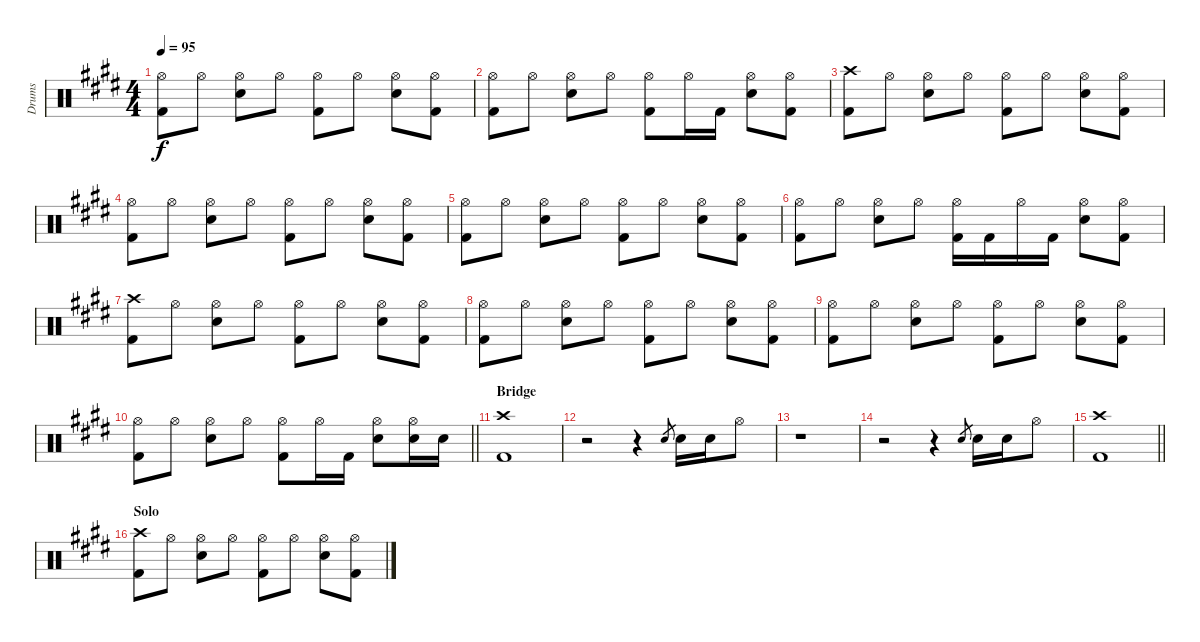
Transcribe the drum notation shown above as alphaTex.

\track ("Drums" "Drums") {instrument percussion}
\staff {score}
\articulation defaults
\ts (4 4)
\tempo 95
\clef neutral
\ks e
("Hi-Hat (open)" "Kick (hit) 2").8{dy f} "Hi-Hat (open)".8 ("Hi-Hat (open)" "Snare (hit) 2").8 "Hi-Hat (open)".8 ("Hi-Hat (open)" "Kick (hit) 2").8 "Hi-Hat (open)".8 ("Hi-Hat (open)" "Snare (hit) 2").8 ("Hi-Hat (open)" "Kick (hit) 2").8 |
("Hi-Hat (open)" "Kick (hit) 2").8 "Hi-Hat (open)".8 ("Hi-Hat (open)" "Snare (hit) 2").8 "Hi-Hat (open)".8 ("Hi-Hat (open)" "Kick (hit) 2").8 "Hi-Hat (open)".16 "Kick (hit) 2".16 ("Hi-Hat (open)" "Snare (hit) 2").8 ("Hi-Hat (open)" "Kick (hit) 2").8 |
("Crash high (hit)" "Kick (hit) 2").8 "Hi-Hat (open)".8 ("Hi-Hat (open)" "Snare (hit) 2").8 "Hi-Hat (open)".8 ("Hi-Hat (open)" "Kick (hit) 2").8 "Hi-Hat (open)".8 ("Hi-Hat (open)" "Snare (hit) 2").8 ("Hi-Hat (open)" "Kick (hit) 2").8 |
("Hi-Hat (open)" "Kick (hit) 2").8 "Hi-Hat (open)".8 ("Hi-Hat (open)" "Snare (hit) 2").8 "Hi-Hat (open)".8 ("Hi-Hat (open)" "Kick (hit) 2").8 "Hi-Hat (open)".8 ("Hi-Hat (open)" "Snare (hit) 2").8 ("Hi-Hat (open)" "Kick (hit) 2").8 |
("Hi-Hat (open)" "Kick (hit) 2").8 "Hi-Hat (open)".8 ("Hi-Hat (open)" "Snare (hit) 2").8 "Hi-Hat (open)".8 ("Hi-Hat (open)" "Kick (hit) 2").8 "Hi-Hat (open)".8 ("Hi-Hat (open)" "Snare (hit) 2").8 ("Hi-Hat (open)" "Kick (hit) 2").8 |
("Hi-Hat (open)" "Kick (hit) 2").8 "Hi-Hat (open)".8 ("Hi-Hat (open)" "Snare (hit) 2").8 "Hi-Hat (open)".8 ("Hi-Hat (open)" "Kick (hit) 2").16 "Kick (hit) 2".16 "Hi-Hat (open)".16 "Kick (hit) 2".16 ("Hi-Hat (open)" "Snare (hit) 2").8 ("Hi-Hat (open)" "Kick (hit) 2").8 |
("Crash high (hit)" "Kick (hit) 2").8 "Hi-Hat (open)".8 ("Hi-Hat (open)" "Snare (hit) 2").8 "Hi-Hat (open)".8 ("Hi-Hat (open)" "Kick (hit) 2").8 "Hi-Hat (open)".8 ("Hi-Hat (open)" "Snare (hit) 2").8 ("Hi-Hat (open)" "Kick (hit) 2").8 |
("Hi-Hat (open)" "Kick (hit) 2").8 "Hi-Hat (open)".8 ("Hi-Hat (open)" "Snare (hit) 2").8 "Hi-Hat (open)".8 ("Hi-Hat (open)" "Kick (hit) 2").8 "Hi-Hat (open)".8 ("Hi-Hat (open)" "Snare (hit) 2").8 ("Hi-Hat (open)" "Kick (hit) 2").8 |
("Hi-Hat (open)" "Kick (hit) 2").8 "Hi-Hat (open)".8 ("Hi-Hat (open)" "Snare (hit) 2").8 "Hi-Hat (open)".8 ("Hi-Hat (open)" "Kick (hit) 2").8 "Hi-Hat (open)".8 ("Hi-Hat (open)" "Snare (hit) 2").8 ("Hi-Hat (open)" "Kick (hit) 2").8 |
\barLineRight lightlight
("Hi-Hat (open)" "Kick (hit) 2").8 "Hi-Hat (open)".8 ("Hi-Hat (open)" "Snare (hit) 2").8 "Hi-Hat (open)".8 ("Hi-Hat (open)" "Kick (hit) 2").8 "Hi-Hat (open)".16 "Kick (hit) 2".16 ("Hi-Hat (open)" "Snare (hit) 2").8 ("Hi-Hat (open)" "Snare (hit) 2").16 "Snare (hit) 2".16 |
\section ("" "Bridge")
("Crash high (hit)" "Kick (hit) 2").1 |
r.2 r.4 "Snare (hit) 2".8{gr} "Snare (hit) 2".16 "Snare (hit) 2".16 "Hi-Hat (open)".8 |
r.1 |
r.2 r.4 "Snare (hit) 2".8{gr} "Snare (hit) 2".16 "Snare (hit) 2".16 "Hi-Hat (open)".8 |
\barLineRight lightlight
("Crash high (hit)" "Kick (hit) 2").1 |
\section ("" "Solo")
("Crash high (hit)" "Kick (hit) 2").8 "Hi-Hat (open)".8 ("Hi-Hat (open)" "Snare (hit) 2").8 "Hi-Hat (open)".8 ("Hi-Hat (open)" "Kick (hit) 2").8 "Hi-Hat (open)".8 ("Hi-Hat (open)" "Snare (hit) 2").8 ("Hi-Hat (open)" "Kick (hit) 2").8
